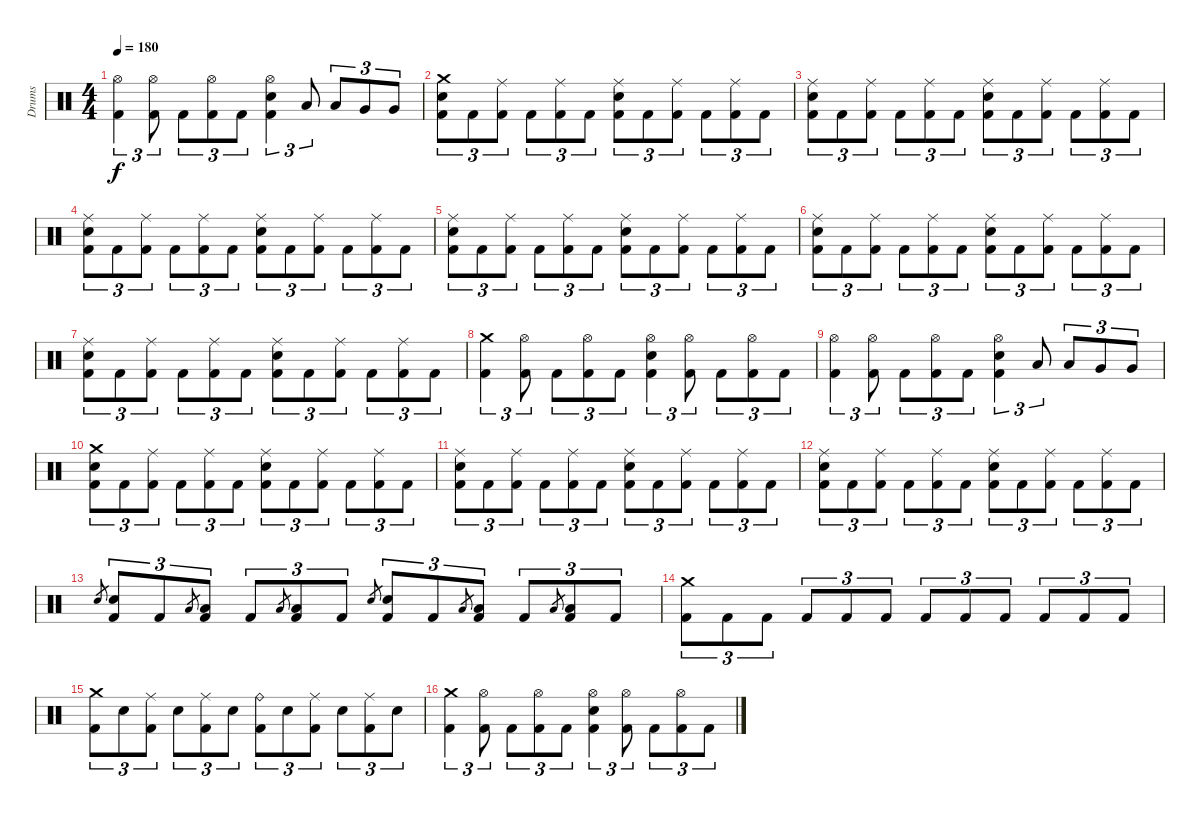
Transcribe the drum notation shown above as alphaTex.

\track ("Drums" "Drums") {instrument percussion}
\staff {score}
\articulation defaults
\ts (4 4)
\tempo 180
\clef neutral
\ks c
("Hi-Hat (open)" "Kick (hit) 2").4{tu (3 2) dy f} ("Hi-Hat (open)" "Kick (hit) 2").8{tu (3 2)} "Kick (hit) 2".8{tu (3 2)} ("Hi-Hat (open)" "Kick (hit) 2").8{tu (3 2)} "Kick (hit) 2".8{tu (3 2)} ("Hi-Hat (open)" "Electric Snare (hit)" "Kick (hit) 2").4{tu (3 2)} "Low Tom (hit)".8{tu (3 2)} "Low Tom (hit)".8{tu (3 2)} "Very Low Tom (hit)".8{tu (3 2)} "Very Low Tom (hit)".8{tu (3 2)} |
("Crash medium (hit)" "Electric Snare (hit)" "Kick (hit) 2").8{tu (3 2)} "Kick (hit) 2".8{tu (3 2)} ("Ride (middle)" "Kick (hit) 2").8{tu (3 2)} "Kick (hit) 2".8{tu (3 2)} ("Ride (middle)" "Kick (hit) 2").8{tu (3 2)} "Kick (hit) 2".8{tu (3 2)} ("Ride (middle)" "Electric Snare (hit)" "Kick (hit) 2").8{tu (3 2)} "Kick (hit) 2".8{tu (3 2)} ("Ride (middle)" "Kick (hit) 2").8{tu (3 2)} "Kick (hit) 2".8{tu (3 2)} ("Ride (middle)" "Kick (hit) 2").8{tu (3 2)} "Kick (hit) 2".8{tu (3 2)} |
("Ride (middle)" "Electric Snare (hit)" "Kick (hit) 2").8{tu (3 2)} "Kick (hit) 2".8{tu (3 2)} ("Ride (middle)" "Kick (hit) 2").8{tu (3 2)} "Kick (hit) 2".8{tu (3 2)} ("Ride (middle)" "Kick (hit) 2").8{tu (3 2)} "Kick (hit) 2".8{tu (3 2)} ("Ride (middle)" "Electric Snare (hit)" "Kick (hit) 2").8{tu (3 2)} "Kick (hit) 2".8{tu (3 2)} ("Ride (middle)" "Kick (hit) 2").8{tu (3 2)} "Kick (hit) 2".8{tu (3 2)} ("Ride (middle)" "Kick (hit) 2").8{tu (3 2)} "Kick (hit) 2".8{tu (3 2)} |
("Ride (middle)" "Electric Snare (hit)" "Kick (hit) 2").8{tu (3 2)} "Kick (hit) 2".8{tu (3 2)} ("Ride (middle)" "Kick (hit) 2").8{tu (3 2)} "Kick (hit) 2".8{tu (3 2)} ("Ride (middle)" "Kick (hit) 2").8{tu (3 2)} "Kick (hit) 2".8{tu (3 2)} ("Ride (middle)" "Electric Snare (hit)" "Kick (hit) 2").8{tu (3 2)} "Kick (hit) 2".8{tu (3 2)} ("Ride (middle)" "Kick (hit) 2").8{tu (3 2)} "Kick (hit) 2".8{tu (3 2)} ("Ride (middle)" "Kick (hit) 2").8{tu (3 2)} "Kick (hit) 2".8{tu (3 2)} |
("Ride (middle)" "Electric Snare (hit)" "Kick (hit) 2").8{tu (3 2)} "Kick (hit) 2".8{tu (3 2)} ("Ride (middle)" "Kick (hit) 2").8{tu (3 2)} "Kick (hit) 2".8{tu (3 2)} ("Ride (middle)" "Kick (hit) 2").8{tu (3 2)} "Kick (hit) 2".8{tu (3 2)} ("Ride (middle)" "Electric Snare (hit)" "Kick (hit) 2").8{tu (3 2)} "Kick (hit) 2".8{tu (3 2)} ("Ride (middle)" "Kick (hit) 2").8{tu (3 2)} "Kick (hit) 2".8{tu (3 2)} ("Ride (middle)" "Kick (hit) 2").8{tu (3 2)} "Kick (hit) 2".8{tu (3 2)} |
("Ride (middle)" "Electric Snare (hit)" "Kick (hit) 2").8{tu (3 2)} "Kick (hit) 2".8{tu (3 2)} ("Ride (middle)" "Kick (hit) 2").8{tu (3 2)} "Kick (hit) 2".8{tu (3 2)} ("Ride (middle)" "Kick (hit) 2").8{tu (3 2)} "Kick (hit) 2".8{tu (3 2)} ("Ride (middle)" "Electric Snare (hit)" "Kick (hit) 2").8{tu (3 2)} "Kick (hit) 2".8{tu (3 2)} ("Ride (middle)" "Kick (hit) 2").8{tu (3 2)} "Kick (hit) 2".8{tu (3 2)} ("Ride (middle)" "Kick (hit) 2").8{tu (3 2)} "Kick (hit) 2".8{tu (3 2)} |
("Ride (middle)" "Electric Snare (hit)" "Kick (hit) 2").8{tu (3 2)} "Kick (hit) 2".8{tu (3 2)} ("Ride (middle)" "Kick (hit) 2").8{tu (3 2)} "Kick (hit) 2".8{tu (3 2)} ("Ride (middle)" "Kick (hit) 2").8{tu (3 2)} "Kick (hit) 2".8{tu (3 2)} ("Ride (middle)" "Electric Snare (hit)" "Kick (hit) 2").8{tu (3 2)} "Kick (hit) 2".8{tu (3 2)} ("Ride (middle)" "Kick (hit) 2").8{tu (3 2)} "Kick (hit) 2".8{tu (3 2)} ("Ride (middle)" "Kick (hit) 2").8{tu (3 2)} "Kick (hit) 2".8{tu (3 2)} |
("Crash medium (hit)" "Kick (hit) 2").4{tu (3 2)} ("Hi-Hat (open)" "Kick (hit) 2").8{tu (3 2)} "Kick (hit) 2".8{tu (3 2)} ("Hi-Hat (open)" "Kick (hit) 2").8{tu (3 2)} "Kick (hit) 2".8{tu (3 2)} ("Hi-Hat (open)" "Electric Snare (hit)" "Kick (hit) 2").4{tu (3 2)} ("Hi-Hat (open)" "Kick (hit) 2").8{tu (3 2)} "Kick (hit) 2".8{tu (3 2)} ("Hi-Hat (open)" "Kick (hit) 2").8{tu (3 2)} "Kick (hit) 2".8{tu (3 2)} |
("Hi-Hat (open)" "Kick (hit) 2").4{tu (3 2)} ("Hi-Hat (open)" "Kick (hit) 2").8{tu (3 2)} "Kick (hit) 2".8{tu (3 2)} ("Hi-Hat (open)" "Kick (hit) 2").8{tu (3 2)} "Kick (hit) 2".8{tu (3 2)} ("Hi-Hat (open)" "Electric Snare (hit)" "Kick (hit) 2").4{tu (3 2)} "Low Tom (hit)".8{tu (3 2)} "Low Tom (hit)".8{tu (3 2)} "Very Low Tom (hit)".8{tu (3 2)} "Very Low Tom (hit)".8{tu (3 2)} |
("Crash medium (hit)" "Electric Snare (hit)" "Kick (hit) 2").8{tu (3 2)} "Kick (hit) 2".8{tu (3 2)} ("Ride (middle)" "Kick (hit) 2").8{tu (3 2)} "Kick (hit) 2".8{tu (3 2)} ("Ride (middle)" "Kick (hit) 2").8{tu (3 2)} "Kick (hit) 2".8{tu (3 2)} ("Ride (middle)" "Electric Snare (hit)" "Kick (hit) 2").8{tu (3 2)} "Kick (hit) 2".8{tu (3 2)} ("Ride (middle)" "Kick (hit) 2").8{tu (3 2)} "Kick (hit) 2".8{tu (3 2)} ("Ride (middle)" "Kick (hit) 2").8{tu (3 2)} "Kick (hit) 2".8{tu (3 2)} |
("Ride (middle)" "Electric Snare (hit)" "Kick (hit) 2").8{tu (3 2)} "Kick (hit) 2".8{tu (3 2)} ("Ride (middle)" "Kick (hit) 2").8{tu (3 2)} "Kick (hit) 2".8{tu (3 2)} ("Ride (middle)" "Kick (hit) 2").8{tu (3 2)} "Kick (hit) 2".8{tu (3 2)} ("Ride (middle)" "Electric Snare (hit)" "Kick (hit) 2").8{tu (3 2)} "Kick (hit) 2".8{tu (3 2)} ("Ride (middle)" "Kick (hit) 2").8{tu (3 2)} "Kick (hit) 2".8{tu (3 2)} ("Ride (middle)" "Kick (hit) 2").8{tu (3 2)} "Kick (hit) 2".8{tu (3 2)} |
("Ride (middle)" "Electric Snare (hit)" "Kick (hit) 2").8{tu (3 2)} "Kick (hit) 2".8{tu (3 2)} ("Ride (middle)" "Kick (hit) 2").8{tu (3 2)} "Kick (hit) 2".8{tu (3 2)} ("Ride (middle)" "Kick (hit) 2").8{tu (3 2)} "Kick (hit) 2".8{tu (3 2)} ("Ride (middle)" "Electric Snare (hit)" "Kick (hit) 2").8{tu (3 2)} "Kick (hit) 2".8{tu (3 2)} ("Ride (middle)" "Kick (hit) 2").8{tu (3 2)} "Kick (hit) 2".8{tu (3 2)} ("Ride (middle)" "Kick (hit) 2").8{tu (3 2)} "Kick (hit) 2".8{tu (3 2)} |
"Electric Snare (hit)".8{gr} ("Electric Snare (hit)" "Kick (hit) 2").8{tu (3 2)} "Kick (hit) 2".8{tu (3 2)} "Low Tom (hit)".8{gr} ("Low Tom (hit)" "Kick (hit) 2").8{tu (3 2)} "Kick (hit) 2".8{tu (3 2)} "Low Tom (hit)".8{gr} ("Low Tom (hit)" "Kick (hit) 2").8{tu (3 2)} "Kick (hit) 2".8{tu (3 2)} "Electric Snare (hit)".8{gr} ("Electric Snare (hit)" "Kick (hit) 2").8{tu (3 2)} "Kick (hit) 2".8{tu (3 2)} "Low Tom (hit)".8{gr} ("Low Tom (hit)" "Kick (hit) 2").8{tu (3 2)} "Kick (hit) 2".8{tu (3 2)} "Low Tom (hit)".8{gr} ("Low Tom (hit)" "Kick (hit) 2").8{tu (3 2)} "Kick (hit) 2".8{tu (3 2)} |
("Crash medium (hit)" "Kick (hit) 2").8{tu (3 2)} "Kick (hit) 2".8{tu (3 2)} "Kick (hit) 2".8{tu (3 2)} "Kick (hit) 2".8{tu (3 2)} "Kick (hit) 2".8{tu (3 2)} "Kick (hit) 2".8{tu (3 2)} "Kick (hit) 2".8{tu (3 2)} "Kick (hit) 2".8{tu (3 2)} "Kick (hit) 2".8{tu (3 2)} "Kick (hit) 2".8{tu (3 2)} "Kick (hit) 2".8{tu (3 2)} "Kick (hit) 2".8{tu (3 2)} |
("Crash medium (hit)" "Kick (hit) 2").8{tu (3 2)} "Electric Snare (hit)".8{tu (3 2)} ("Ride (middle)" "Kick (hit) 2").8{tu (3 2)} "Electric Snare (hit)".8{tu (3 2)} ("Ride (middle)" "Kick (hit) 2").8{tu (3 2)} "Electric Snare (hit)".8{tu (3 2)} ("Ride (bell)" "Kick (hit) 2").8{tu (3 2)} "Electric Snare (hit)".8{tu (3 2)} ("Ride (middle)" "Kick (hit) 2").8{tu (3 2)} "Electric Snare (hit)".8{tu (3 2)} ("Ride (middle)" "Kick (hit) 2").8{tu (3 2)} "Electric Snare (hit)".8{tu (3 2)} |
("Crash medium (hit)" "Kick (hit) 2").4{tu (3 2)} ("Hi-Hat (open)" "Kick (hit) 2").8{tu (3 2)} "Kick (hit) 2".8{tu (3 2)} ("Hi-Hat (open)" "Kick (hit) 2").8{tu (3 2)} "Kick (hit) 2".8{tu (3 2)} ("Hi-Hat (open)" "Electric Snare (hit)" "Kick (hit) 2").4{tu (3 2)} ("Hi-Hat (open)" "Kick (hit) 2").8{tu (3 2)} "Kick (hit) 2".8{tu (3 2)} ("Hi-Hat (open)" "Kick (hit) 2").8{tu (3 2)} "Kick (hit) 2".8{tu (3 2)}
